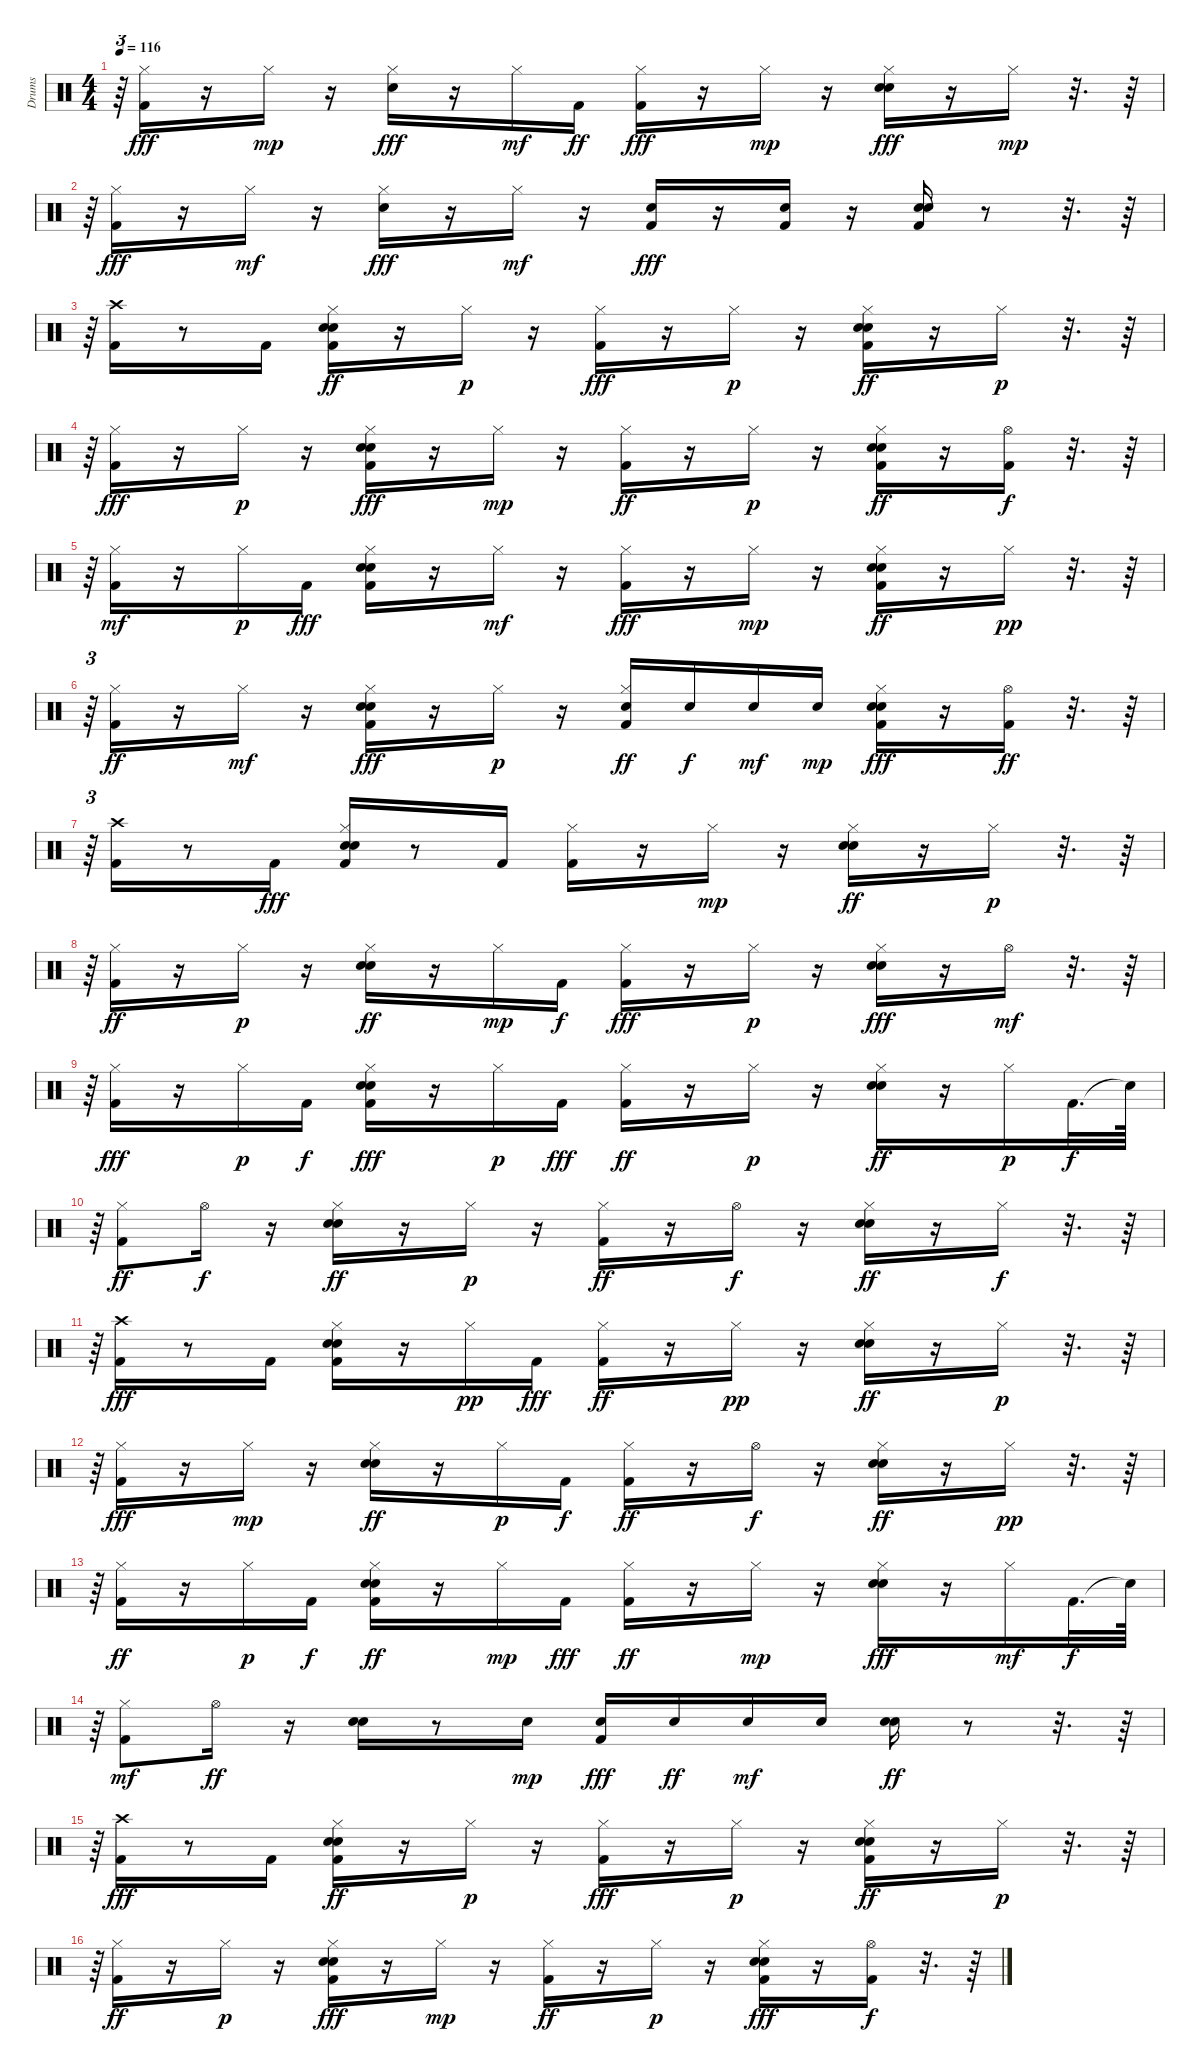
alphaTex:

\track ("Drums" "Drums") {instrument percussion}
\staff {score}
\articulation defaults
\ts (4 4)
\tempo 116
\clef neutral
\ks c
r.64{tu (3 2) dy fff} ("Kick (hit) 2" "Hi-Hat (closed)").16 r.16 "Hi-Hat (closed)".16{dy mp} r.16 ("Snare (hit) 2" "Hi-Hat (closed)").16{dy fff} r.16 "Hi-Hat (closed)".16{dy mf} "Kick (hit) 2".16{dy ff} ("Kick (hit) 2" "Hi-Hat (closed)").16{dy fff} r.16 "Hi-Hat (closed)".16{dy mp} r.16 ("Hi-Hat (closed)" "Snare (hit) 2" "Hand Clap (hit)").16{dy fff} r.16 "Hi-Hat (closed)".16{dy mp} r.32{d} r.64 |
r.64{tu (3 2)} ("Hi-Hat (closed)" "Kick (hit) 2").16{dy fff} r.16 "Hi-Hat (closed)".16{dy mf} r.16 ("Hi-Hat (closed)" "Snare (hit) 2").16{dy fff} r.16 "Hi-Hat (closed)".16{dy mf} r.16 ("Snare (hit) 2" "Kick (hit) 2").16{dy fff} r.16 ("Snare (hit) 2" "Kick (hit) 2").16 r.16 ("Kick (hit) 2" "Hand Clap (hit)" "Snare (hit) 2").16 r.8 r.32{d} r.64 |
r.64{tu (3 2)} ("Kick (hit) 2" "Crash high (hit)").16 r.8 "Kick (hit) 2".16 ("Hi-Hat (closed)" "Hand Clap (hit)" "Kick (hit) 2" "Snare (hit) 2").16{dy ff} r.16 "Hi-Hat (closed)".16{dy p} r.16 ("Kick (hit) 2" "Hi-Hat (closed)").16{dy fff} r.16 "Hi-Hat (closed)".16{dy p} r.16 ("Kick (hit) 2" "Hi-Hat (closed)" "Snare (hit) 2" "Hand Clap (hit)").16{dy ff} r.16 "Hi-Hat (closed)".16{dy p} r.32{d} r.64 |
r.64{tu (3 2)} ("Hi-Hat (closed)" "Kick (hit) 2").16{dy fff} r.16 "Hi-Hat (closed)".16{dy p} r.16 ("Snare (hit) 2" "Hi-Hat (closed)" "Hand Clap (hit)" "Kick (hit) 2").16{dy fff} r.16 "Hi-Hat (closed)".16{dy mp} r.16 ("Kick (hit) 2" "Hi-Hat (closed)").16{dy ff} r.16 "Hi-Hat (closed)".16{dy p} r.16 ("Snare (hit) 2" "Hand Clap (hit)" "Kick (hit) 2" "Hi-Hat (closed)").16{dy ff} r.16 ("Kick (hit) 2" "Hi-Hat (open)").16{dy f} r.32{d} r.64 |
r.64{tu (3 2)} ("Kick (hit) 2" "Hi-Hat (closed)").16{dy mf} r.16 "Hi-Hat (closed)".16{dy p} "Kick (hit) 2".16{dy fff} ("Snare (hit) 2" "Hi-Hat (closed)" "Hand Clap (hit)" "Kick (hit) 2").16 r.16 "Hi-Hat (closed)".16{dy mf} r.16 ("Kick (hit) 2" "Hi-Hat (closed)").16{dy fff} r.16 "Hi-Hat (closed)".16{dy mp} r.16 ("Snare (hit) 2" "Hand Clap (hit)" "Kick (hit) 2" "Hi-Hat (closed)").16{dy ff} r.16 "Hi-Hat (closed)".16{dy pp} r.32{d} r.64 |
r.64{tu (3 2)} ("Kick (hit) 2" "Hi-Hat (closed)").16{dy ff} r.16 "Hi-Hat (closed)".16{dy mf} r.16 ("Hand Clap (hit)" "Hi-Hat (closed)" "Snare (hit) 2" "Kick (hit) 2").16{dy fff} r.16 "Hi-Hat (closed)".16{dy p} r.16 ("Kick (hit) 2" "Snare (hit) 2" "Hi-Hat (closed)").16{dy ff} "Snare (hit) 2".16{dy f} "Snare (hit) 2".16{dy mf} "Snare (hit) 2".16{dy mp} ("Hand Clap (hit)" "Snare (hit) 2" "Kick (hit) 2" "Hi-Hat (closed)").16{dy fff} r.16 ("Kick (hit) 2" "Hi-Hat (open)").16{dy ff} r.32{d} r.64 |
r.64{tu (3 2)} ("Kick (hit) 2" "Crash high (hit)").16 r.8 "Kick (hit) 2".16{dy fff} ("Hand Clap (hit)" "Hi-Hat (closed)" "Kick (hit) 2" "Snare (hit) 2").16 r.8 "Kick (hit) 2".16 ("Hi-Hat (closed)" "Kick (hit) 2").16 r.16 "Hi-Hat (closed)".16{dy mp} r.16 ("Hi-Hat (closed)" "Snare (hit) 2" "Hand Clap (hit)").16{dy ff} r.16 "Hi-Hat (closed)".16{dy p} r.32{d} r.64 |
r.64{tu (3 2)} ("Kick (hit) 2" "Hi-Hat (closed)").16{dy ff} r.16 "Hi-Hat (closed)".16{dy p} r.16 ("Snare (hit) 2" "Hi-Hat (closed)" "Hand Clap (hit)").16{dy ff} r.16 "Hi-Hat (closed)".16{dy mp} "Kick (hit) 2".16{dy f} ("Kick (hit) 2" "Hi-Hat (closed)").16{dy fff} r.16 "Hi-Hat (closed)".16{dy p} r.16 ("Hi-Hat (closed)" "Hand Clap (hit)" "Snare (hit) 2").16{dy fff} r.16 "Hi-Hat (open)".16{dy mf} r.32{d} r.64 |
r.64{tu (3 2)} ("Kick (hit) 2" "Hi-Hat (closed)").16{dy fff} r.16 "Hi-Hat (closed)".16{dy p} "Kick (hit) 2".16{dy f} ("Snare (hit) 2" "Hi-Hat (closed)" "Hand Clap (hit)" "Kick (hit) 2").16{dy fff} r.16 "Hi-Hat (closed)".16{dy p} "Kick (hit) 2".16{dy fff} ("Kick (hit) 2" "Hi-Hat (closed)").16{dy ff} r.16 "Hi-Hat (closed)".16{dy p} r.16 ("Hi-Hat (closed)" "Snare (hit) 2" "Hand Clap (hit)").16{dy ff} r.16 "Hi-Hat (closed)".16{dy p} "Kick (hit) 2".32{d dy f} "Snare (hit)"{t}.64 |
r.64{tu (3 2)} ("Kick (hit) 2" "Hi-Hat (closed)").8{dy ff} "Hi-Hat (open)".16{dy f} r.16 ("Hand Clap (hit)" "Snare (hit) 2" "Hi-Hat (closed)").16{dy ff} r.16 "Hi-Hat (closed)".16{dy p} r.16 ("Kick (hit) 2" "Hi-Hat (closed)").16{dy ff} r.16 "Hi-Hat (open)".16{dy f} r.16 ("Snare (hit) 2" "Hand Clap (hit)" "Hi-Hat (closed)").16{dy ff} r.16 "Hi-Hat (closed)".16{dy f} r.32{d} r.64 |
r.64{tu (3 2)} ("Crash high (hit)" "Kick (hit) 2").16{dy fff} r.8 "Kick (hit) 2".16 ("Snare (hit) 2" "Hand Clap (hit)" "Hi-Hat (closed)" "Kick (hit) 2").16 r.16 "Hi-Hat (closed)".16{dy pp} "Kick (hit) 2".16{dy fff} ("Kick (hit) 2" "Hi-Hat (closed)").16{dy ff} r.16 "Hi-Hat (closed)".16{dy pp} r.16 ("Snare (hit) 2" "Hi-Hat (closed)" "Hand Clap (hit)").16{dy ff} r.16 "Hi-Hat (closed)".16{dy p} r.32{d} r.64 |
r.64{tu (3 2)} ("Hi-Hat (closed)" "Kick (hit) 2").16{dy fff} r.16 "Hi-Hat (closed)".16{dy mp} r.16 ("Snare (hit) 2" "Hand Clap (hit)" "Hi-Hat (closed)").16{dy ff} r.16 "Hi-Hat (closed)".16{dy p} "Kick (hit) 2".16{dy f} ("Kick (hit) 2" "Hi-Hat (closed)").16{dy ff} r.16 "Hi-Hat (open)".16{dy f} r.16 ("Snare (hit) 2" "Hi-Hat (closed)" "Hand Clap (hit)").16{dy ff} r.16 "Hi-Hat (closed)".16{dy pp} r.32{d} r.64 |
r.64{tu (3 2)} ("Kick (hit) 2" "Hi-Hat (closed)").16{dy ff} r.16 "Hi-Hat (closed)".16{dy p} "Kick (hit) 2".16{dy f} ("Kick (hit) 2" "Hi-Hat (closed)" "Hand Clap (hit)" "Snare (hit) 2").16{dy ff} r.16 "Hi-Hat (closed)".16{dy mp} "Kick (hit) 2".16{dy fff} ("Kick (hit) 2" "Hi-Hat (closed)").16{dy ff} r.16 "Hi-Hat (closed)".16{dy mp} r.16 ("Hi-Hat (closed)" "Hand Clap (hit)" "Snare (hit) 2").16{dy fff} r.16 "Hi-Hat (closed)".16{dy mf} "Kick (hit) 2".32{d dy f} "Snare (hit)"{t}.64 |
r.64{tu (3 2)} ("Kick (hit) 2" "Hi-Hat (closed)").8{dy mf} "Hi-Hat (open)".16{dy ff} r.16 ("Snare (hit) 2" "Hand Clap (hit)").16 r.8 "Snare (hit) 2".16{dy mp} ("Snare (hit) 2" "Kick (hit) 2").16{dy fff} "Snare (hit) 2".16{dy ff} "Snare (hit) 2".16{dy mf} "Snare (hit) 2".16 ("Hand Clap (hit)" "Snare (hit) 2").16{dy ff} r.8 r.32{d} r.64 |
r.64{tu (3 2)} ("Kick (hit) 2" "Crash high (hit)").16{dy fff} r.8 "Kick (hit) 2".16 ("Hand Clap (hit)" "Kick (hit) 2" "Hi-Hat (closed)" "Snare (hit) 2").16{dy ff} r.16 "Hi-Hat (closed)".16{dy p} r.16 ("Hi-Hat (closed)" "Kick (hit) 2").16{dy fff} r.16 "Hi-Hat (closed)".16{dy p} r.16 ("Snare (hit) 2" "Kick (hit) 2" "Hand Clap (hit)" "Hi-Hat (closed)").16{dy ff} r.16 "Hi-Hat (closed)".16{dy p} r.32{d} r.64 |
r.64{tu (3 2)} ("Kick (hit) 2" "Hi-Hat (closed)").16{dy ff} r.16 "Hi-Hat (closed)".16{dy p} r.16 ("Hi-Hat (closed)" "Hand Clap (hit)" "Snare (hit) 2" "Kick (hit) 2").16{dy fff} r.16 "Hi-Hat (closed)".16{dy mp} r.16 ("Kick (hit) 2" "Hi-Hat (closed)").16{dy ff} r.16 "Hi-Hat (closed)".16{dy p} r.16 ("Hi-Hat (closed)" "Hand Clap (hit)" "Snare (hit) 2" "Kick (hit) 2").16{dy fff} r.16 ("Hi-Hat (open)" "Kick (hit) 2").16{dy f} r.32{d} r.64
